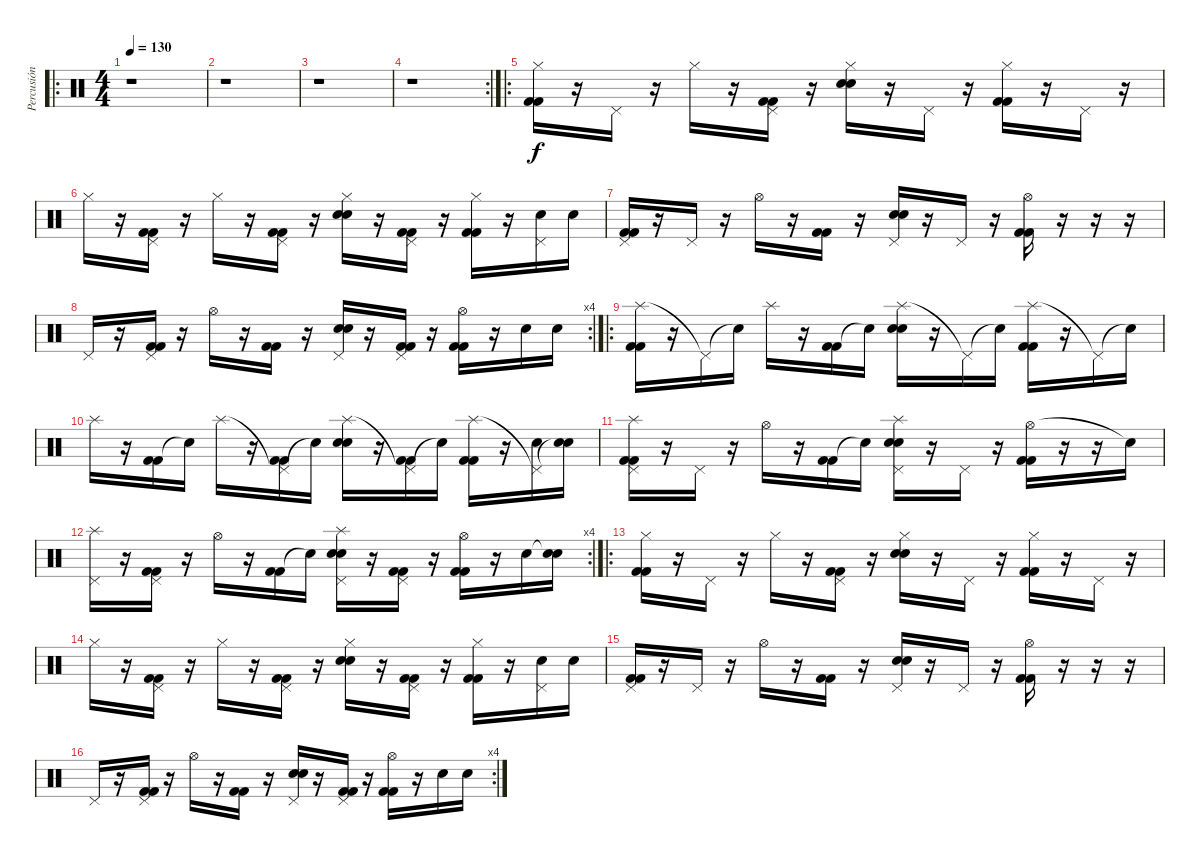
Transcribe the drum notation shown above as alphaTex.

\track ("Percusión" "Percusión") {instrument percussion}
\staff {score}
\articulation defaults
\ro
\ts (4 4)
\tempo 130
\clef neutral
\ks c
r.1{dy f} |
r.1 |
r.1 |
\rc 2
r.1 |
\ro
("Hi-Hat (closed)" "Kick (hit) 2" "Kick (hit) 2").16 r.16 "Pedal Hi-Hat (hit)".16 r.16 "Hi-Hat (closed)".16 r.16 ("Pedal Hi-Hat (hit)" "Kick (hit) 2" "Kick (hit) 2").16 r.16 ("Hi-Hat (closed)" "Electric Snare (hit)" "Electric Snare (hit)").16 r.16 "Pedal Hi-Hat (hit)".16 r.16 ("Hi-Hat (closed)" "Kick (hit) 2" "Kick (hit) 2").16 r.16 "Pedal Hi-Hat (hit)".16 r.16 |
"Hi-Hat (closed)".16 r.16 ("Pedal Hi-Hat (hit)" "Kick (hit) 2" "Kick (hit) 2").16 r.16 "Hi-Hat (closed)".16 r.16 ("Pedal Hi-Hat (hit)" "Kick (hit) 2" "Kick (hit) 2").16 r.16 ("Hi-Hat (closed)" "Electric Snare (hit)" "Electric Snare (hit)").16 r.16 ("Pedal Hi-Hat (hit)" "Kick (hit) 2" "Kick (hit) 2").16 r.16 ("Hi-Hat (closed)" "Kick (hit) 2" "Kick (hit) 2").16 r.16 ("Pedal Hi-Hat (hit)" "Electric Snare (hit)").16 "Electric Snare (hit)".16 |
("Pedal Hi-Hat (hit)" "Kick (hit) 2" "Kick (hit) 2").16 r.16 "Pedal Hi-Hat (hit)".16 r.16 "Hi-Hat (open)".16 r.16 ("Kick (hit) 2" "Kick (hit) 2").16 r.16 ("Pedal Hi-Hat (hit)" "Electric Snare (hit)" "Electric Snare (hit)").16 r.16 "Pedal Hi-Hat (hit)".16 r.16 ("Hi-Hat (open)" "Kick (hit) 2" "Kick (hit) 2").16 r.16 r.16 r.16 |
\rc 4 "Pedal Hi-Hat (hit)".16
r.16 ("Pedal Hi-Hat (hit)" "Kick (hit) 2" "Kick (hit) 2").16 r.16 "Hi-Hat (open)".16 r.16 ("Kick (hit) 2" "Kick (hit) 2").16 r.16 ("Pedal Hi-Hat (hit)" "Electric Snare (hit)" "Electric Snare (hit)").16 r.16 ("Pedal Hi-Hat (hit)" "Kick (hit) 2" "Kick (hit) 2").16 r.16 ("Hi-Hat (open)" "Kick (hit) 2" "Kick (hit) 2").16 r.16 "Electric Snare (hit)".16 "Electric Snare (hit)".16 |
\ro
("Splash (hit)" "Kick (hit) 2" "Kick (hit) 2").16 r.16 "Pedal Hi-Hat (hit)"{t}.16 "Snare (hit)"{t}.16 "Splash (hit)".16 r.16 ("Kick (hit) 2" "Kick (hit) 2").16 "Snare (hit)"{t}.16 ("Splash (hit)" "Electric Snare (hit)" "Electric Snare (hit)").16 r.16 "Pedal Hi-Hat (hit)"{t}.16 "Snare (hit)"{t}.16 ("Splash (hit)" "Kick (hit) 2" "Kick (hit) 2").16 r.16 "Pedal Hi-Hat (hit)"{t}.16 "Snare (hit)"{t}.16 |
"Splash (hit)".16 r.16 ("Kick (hit) 2" "Kick (hit) 2").16 "Snare (hit)"{t}.16 "Splash (hit)".16 r.16 ("Pedal Hi-Hat (hit)"{t} "Kick (hit) 2" "Kick (hit) 2").16 "Snare (hit)"{t}.16 ("Splash (hit)" "Electric Snare (hit)" "Electric Snare (hit)").16 r.16 ("Pedal Hi-Hat (hit)"{t} "Kick (hit) 2" "Kick (hit) 2").16 "Snare (hit)"{t}.16 ("Splash (hit)" "Kick (hit) 2" "Kick (hit) 2").16 r.16 ("Pedal Hi-Hat (hit)"{t} "Electric Snare (hit)").16 ("Snare (hit)"{t} "Electric Snare (hit)").16 |
("Pedal Hi-Hat (hit)" "Splash (hit)" "Kick (hit) 2" "Kick (hit) 2").16 r.16 "Pedal Hi-Hat (hit)".16 r.16 "Hi-Hat (open)".16 r.16 ("Kick (hit) 2" "Kick (hit) 2").16 "Snare (hit)"{t}.16 ("Pedal Hi-Hat (hit)" "Splash (hit)" "Electric Snare (hit)" "Electric Snare (hit)").16 r.16 "Pedal Hi-Hat (hit)".16 r.16 ("Hi-Hat (open)" "Kick (hit) 2" "Kick (hit) 2").16 r.16 r.16 "Snare (hit)"{t}.16 |
\rc 4
("Pedal Hi-Hat (hit)" "Splash (hit)").16 r.16 ("Pedal Hi-Hat (hit)" "Kick (hit) 2" "Kick (hit) 2").16 r.16 "Hi-Hat (open)".16 r.16 ("Kick (hit) 2" "Kick (hit) 2").16 "Snare (hit)"{t}.16 ("Pedal Hi-Hat (hit)" "Splash (hit)" "Electric Snare (hit)" "Electric Snare (hit)").16 r.16 ("Pedal Hi-Hat (hit)" "Kick (hit) 2" "Kick (hit) 2").16 r.16 ("Hi-Hat (open)" "Kick (hit) 2" "Kick (hit) 2").16 r.16 "Electric Snare (hit)".16 ("Snare (hit)"{t} "Electric Snare (hit)").16 |
\ro
("Hi-Hat (closed)" "Kick (hit) 2" "Kick (hit) 2").16 r.16 "Pedal Hi-Hat (hit)".16 r.16 "Hi-Hat (closed)".16 r.16 ("Pedal Hi-Hat (hit)" "Kick (hit) 2" "Kick (hit) 2").16 r.16 ("Hi-Hat (closed)" "Electric Snare (hit)" "Electric Snare (hit)").16 r.16 "Pedal Hi-Hat (hit)".16 r.16 ("Hi-Hat (closed)" "Kick (hit) 2" "Kick (hit) 2").16 r.16 "Pedal Hi-Hat (hit)".16 r.16 |
"Hi-Hat (closed)".16 r.16 ("Pedal Hi-Hat (hit)" "Kick (hit) 2" "Kick (hit) 2").16 r.16 "Hi-Hat (closed)".16 r.16 ("Pedal Hi-Hat (hit)" "Kick (hit) 2" "Kick (hit) 2").16 r.16 ("Hi-Hat (closed)" "Electric Snare (hit)" "Electric Snare (hit)").16 r.16 ("Pedal Hi-Hat (hit)" "Kick (hit) 2" "Kick (hit) 2").16 r.16 ("Hi-Hat (closed)" "Kick (hit) 2" "Kick (hit) 2").16 r.16 ("Pedal Hi-Hat (hit)" "Electric Snare (hit)").16 "Electric Snare (hit)".16 |
("Pedal Hi-Hat (hit)" "Kick (hit) 2" "Kick (hit) 2").16 r.16 "Pedal Hi-Hat (hit)".16 r.16 "Hi-Hat (open)".16 r.16 ("Kick (hit) 2" "Kick (hit) 2").16 r.16 ("Pedal Hi-Hat (hit)" "Electric Snare (hit)" "Electric Snare (hit)").16 r.16 "Pedal Hi-Hat (hit)".16 r.16 ("Hi-Hat (open)" "Kick (hit) 2" "Kick (hit) 2").16 r.16 r.16 r.16 |
\rc 4 "Pedal Hi-Hat (hit)".16
r.16 ("Pedal Hi-Hat (hit)" "Kick (hit) 2" "Kick (hit) 2").16 r.16 "Hi-Hat (open)".16 r.16 ("Kick (hit) 2" "Kick (hit) 2").16 r.16 ("Pedal Hi-Hat (hit)" "Electric Snare (hit)" "Electric Snare (hit)").16 r.16 ("Pedal Hi-Hat (hit)" "Kick (hit) 2" "Kick (hit) 2").16 r.16 ("Hi-Hat (open)" "Kick (hit) 2" "Kick (hit) 2").16 r.16 "Electric Snare (hit)".16 "Electric Snare (hit)".16
